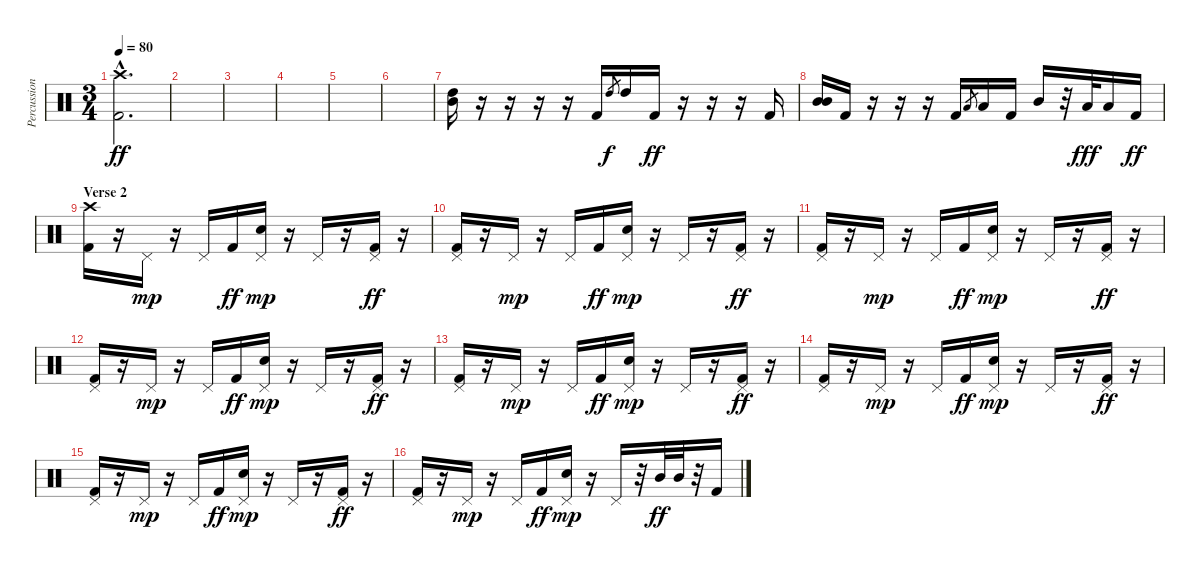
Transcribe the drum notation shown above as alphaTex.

\track ("Percussion" "Percussion") {instrument percussion}
\staff {score}
\articulation defaults
\ts (3 4)
\section ("" "")
\tempo 80
\clef neutral
\ks c
("Crash high (hit)"{hac} "Kick (hit) 2"{hac}).2{d dy ff} |
|
|
|
|
|
("High Tom (hit)" "Mid Tom (hit)").16 r.16 r.16 r.16 r.16 "Kick (hit) 2".16 "High Tom (hit)".8{gr dy f} "High Tom (hit)".16 "Kick (hit) 2".16{dy ff} r.16 r.16 r.16 "Kick (hit) 2".16 |
("Mid Tom (hit)" "Mid Tom (hit)").16 "Kick (hit) 2".16 r.16 r.16 r.16 "Kick (hit) 2".16 "Low Tom (hit)".8{gr} "Low Tom (hit)".16 "Kick (hit) 2".16 "Mid Tom (hit)".16 r.32 "Low Tom (hit)".32{dy fff} "Low Tom (hit)".16 "Kick (hit) 2".16{dy ff} |
\section ("" "Verse 2")
("Crash high (hit)" "Kick (hit) 2").16 r.16 "Pedal Hi-Hat (hit)".16{dy mp} r.16 "Pedal Hi-Hat (hit)".16 "Kick (hit) 2".16{dy ff} ("Pedal Hi-Hat (hit)" "Electric Snare (hit)").16{dy mp} r.16 "Pedal Hi-Hat (hit)".16 r.16 ("Pedal Hi-Hat (hit)" "Kick (hit) 2").16{dy ff} r.16 |
("Pedal Hi-Hat (hit)" "Kick (hit) 2").16 r.16 "Pedal Hi-Hat (hit)".16{dy mp} r.16 "Pedal Hi-Hat (hit)".16 "Kick (hit) 2".16{dy ff} ("Pedal Hi-Hat (hit)" "Electric Snare (hit)").16{dy mp} r.16 "Pedal Hi-Hat (hit)".16 r.16 ("Pedal Hi-Hat (hit)" "Kick (hit) 2").16{dy ff} r.16 |
("Pedal Hi-Hat (hit)" "Kick (hit) 2").16 r.16 "Pedal Hi-Hat (hit)".16{dy mp} r.16 "Pedal Hi-Hat (hit)".16 "Kick (hit) 2".16{dy ff} ("Pedal Hi-Hat (hit)" "Electric Snare (hit)").16{dy mp} r.16 "Pedal Hi-Hat (hit)".16 r.16 ("Pedal Hi-Hat (hit)" "Kick (hit) 2").16{dy ff} r.16 |
("Pedal Hi-Hat (hit)" "Kick (hit) 2").16 r.16 "Pedal Hi-Hat (hit)".16{dy mp} r.16 "Pedal Hi-Hat (hit)".16 "Kick (hit) 2".16{dy ff} ("Pedal Hi-Hat (hit)" "Electric Snare (hit)").16{dy mp} r.16 "Pedal Hi-Hat (hit)".16 r.16 ("Pedal Hi-Hat (hit)" "Kick (hit) 2").16{dy ff} r.16 |
("Pedal Hi-Hat (hit)" "Kick (hit) 2").16 r.16 "Pedal Hi-Hat (hit)".16{dy mp} r.16 "Pedal Hi-Hat (hit)".16 "Kick (hit) 2".16{dy ff} ("Pedal Hi-Hat (hit)" "Electric Snare (hit)").16{dy mp} r.16 "Pedal Hi-Hat (hit)".16 r.16 ("Pedal Hi-Hat (hit)" "Kick (hit) 2").16{dy ff} r.16 |
("Pedal Hi-Hat (hit)" "Kick (hit) 2").16 r.16 "Pedal Hi-Hat (hit)".16{dy mp} r.16 "Pedal Hi-Hat (hit)".16 "Kick (hit) 2".16{dy ff} ("Pedal Hi-Hat (hit)" "Electric Snare (hit)").16{dy mp} r.16 "Pedal Hi-Hat (hit)".16 r.16 ("Pedal Hi-Hat (hit)" "Kick (hit) 2").16{dy ff} r.16 |
("Pedal Hi-Hat (hit)" "Kick (hit) 2").16 r.16 "Pedal Hi-Hat (hit)".16{dy mp} r.16 "Pedal Hi-Hat (hit)".16 "Kick (hit) 2".16{dy ff} ("Pedal Hi-Hat (hit)" "Electric Snare (hit)").16{dy mp} r.16 "Pedal Hi-Hat (hit)".16 r.16 ("Pedal Hi-Hat (hit)" "Kick (hit) 2").16{dy ff} r.16 |
("Pedal Hi-Hat (hit)" "Kick (hit) 2").16 r.16 "Pedal Hi-Hat (hit)".16{dy mp} r.16 "Pedal Hi-Hat (hit)".16 "Kick (hit) 2".16{dy ff} ("Pedal Hi-Hat (hit)" "Electric Snare (hit)").16{dy mp} r.16 "Pedal Hi-Hat (hit)".16 r.32 "Mid Tom (hit)".32{dy ff} "Mid Tom (hit)".32 r.32 "Kick (hit) 2".16
